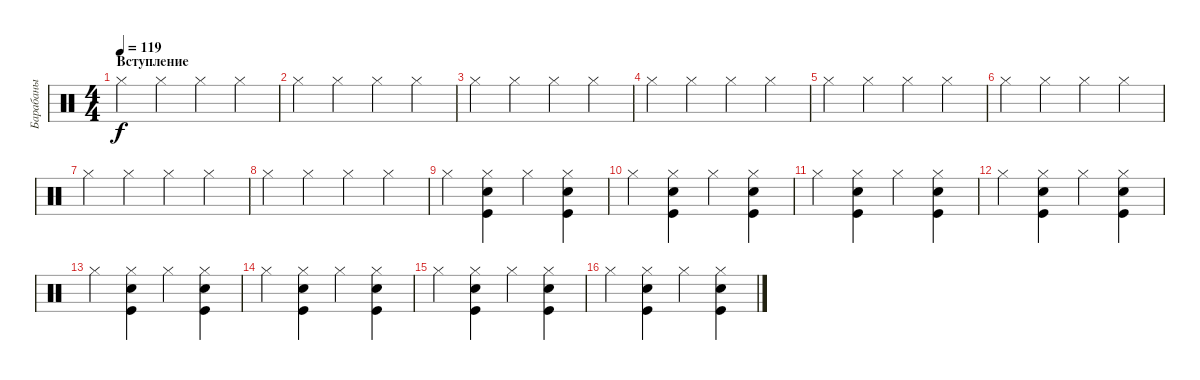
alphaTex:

\track ("Барабаны" "Барабаны") {instrument percussion}
\staff {score}
\articulation defaults
\ts (4 4)
\section ("" "Вступление")
\tempo 119
\clef neutral
\ks c "Hi-Hat (closed)".4{dy f} "Hi-Hat (closed)".4 "Hi-Hat (closed)".4 "Hi-Hat (closed)".4
|
"Hi-Hat (closed)".4 "Hi-Hat (closed)".4 "Hi-Hat (closed)".4 "Hi-Hat (closed)".4 |
"Hi-Hat (closed)".4 "Hi-Hat (closed)".4 "Hi-Hat (closed)".4 "Hi-Hat (closed)".4 |
"Hi-Hat (closed)".4 "Hi-Hat (closed)".4 "Hi-Hat (closed)".4 "Hi-Hat (closed)".4 |
"Hi-Hat (closed)".4 "Hi-Hat (closed)".4 "Hi-Hat (closed)".4 "Hi-Hat (closed)".4 |
"Hi-Hat (closed)".4 "Hi-Hat (closed)".4 "Hi-Hat (closed)".4 "Hi-Hat (closed)".4 |
"Hi-Hat (closed)".4 "Hi-Hat (closed)".4 "Hi-Hat (closed)".4 "Hi-Hat (closed)".4 |
"Hi-Hat (closed)".4 "Hi-Hat (closed)".4 "Hi-Hat (closed)".4 "Hi-Hat (closed)".4 |
"Hi-Hat (closed)".4 ("Kick (hit)" "Snare (hit) 2" "Hi-Hat (closed)").4 "Hi-Hat (closed)".4 ("Kick (hit)" "Snare (hit) 2" "Hi-Hat (closed)").4 |
"Hi-Hat (closed)".4 ("Kick (hit)" "Snare (hit) 2" "Hi-Hat (closed)").4 "Hi-Hat (closed)".4 ("Kick (hit)" "Snare (hit) 2" "Hi-Hat (closed)").4 |
"Hi-Hat (closed)".4 ("Kick (hit)" "Snare (hit) 2" "Hi-Hat (closed)").4 "Hi-Hat (closed)".4 ("Kick (hit)" "Snare (hit) 2" "Hi-Hat (closed)").4 |
"Hi-Hat (closed)".4 ("Kick (hit)" "Snare (hit) 2" "Hi-Hat (closed)").4 "Hi-Hat (closed)".4 ("Kick (hit)" "Snare (hit) 2" "Hi-Hat (closed)").4 |
"Hi-Hat (closed)".4 ("Kick (hit)" "Snare (hit) 2" "Hi-Hat (closed)").4 "Hi-Hat (closed)".4 ("Kick (hit)" "Snare (hit) 2" "Hi-Hat (closed)").4 |
"Hi-Hat (closed)".4 ("Kick (hit)" "Snare (hit) 2" "Hi-Hat (closed)").4 "Hi-Hat (closed)".4 ("Kick (hit)" "Snare (hit) 2" "Hi-Hat (closed)").4 |
"Hi-Hat (closed)".4 ("Kick (hit)" "Snare (hit) 2" "Hi-Hat (closed)").4 "Hi-Hat (closed)".4 ("Kick (hit)" "Snare (hit) 2" "Hi-Hat (closed)").4 |
"Hi-Hat (closed)".4 ("Kick (hit)" "Snare (hit) 2" "Hi-Hat (closed)").4 "Hi-Hat (closed)".4 ("Kick (hit)" "Snare (hit) 2" "Hi-Hat (closed)").4
